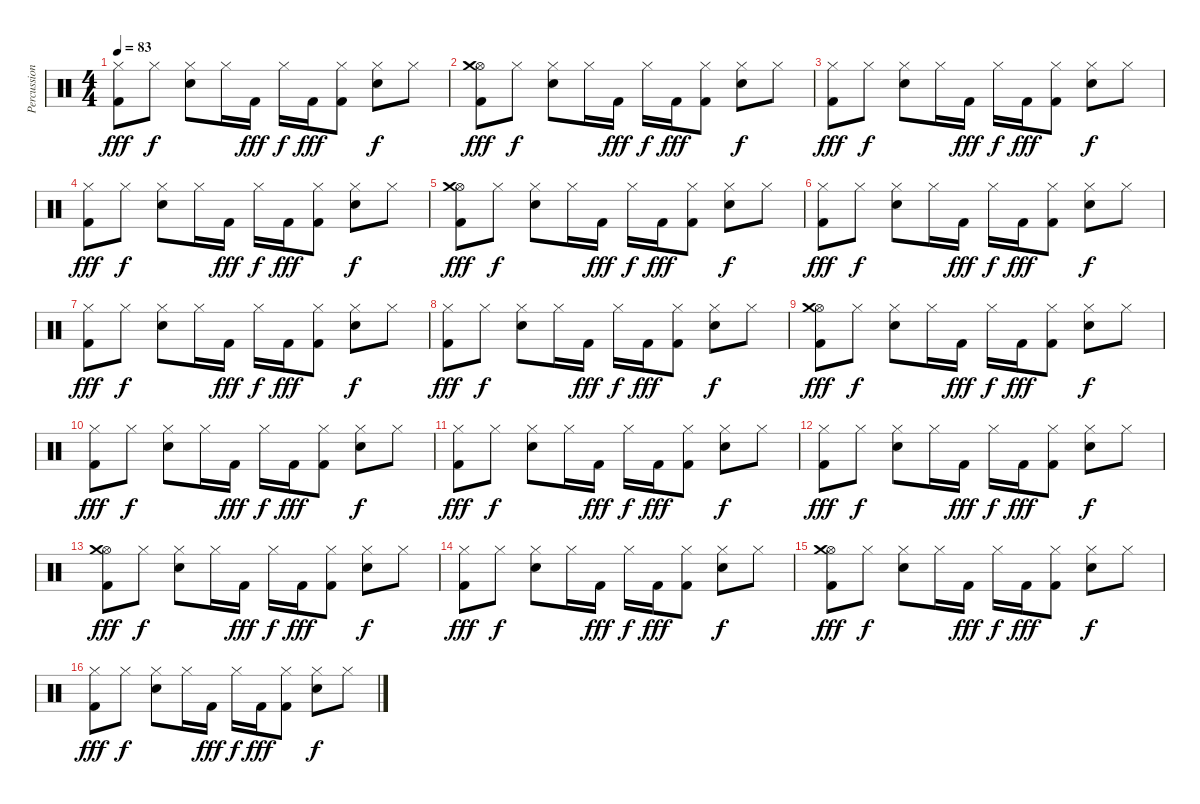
\track ("Percussion" "Percussion") {instrument percussion}
\staff {score}
\articulation defaults
\ts (4 4)
\tempo 83
\clef neutral
\ks c
("Kick (hit) 2" "Hi-Hat (closed)").8{dy fff} "Hi-Hat (closed)".8{dy f} ("Electric Snare (hit)" "Hi-Hat (closed)").8 "Hi-Hat (closed)".16 "Kick (hit) 2".16{dy fff} "Hi-Hat (closed)".16{dy f} "Kick (hit) 2".16{dy fff} ("Kick (hit) 2" "Hi-Hat (closed)").8 ("Electric Snare (hit)" "Hi-Hat (closed)").8{dy f} "Hi-Hat (closed)".8 |
("Kick (hit) 2" "Hi-Hat (open)" "Crash medium (hit)").8{dy fff} "Hi-Hat (closed)".8{dy f} ("Electric Snare (hit)" "Hi-Hat (closed)").8 "Hi-Hat (closed)".16 "Kick (hit) 2".16{dy fff} "Hi-Hat (closed)".16{dy f} "Kick (hit) 2".16{dy fff} ("Kick (hit) 2" "Hi-Hat (closed)").8 ("Electric Snare (hit)" "Hi-Hat (closed)").8{dy f} "Hi-Hat (closed)".8 |
("Kick (hit) 2" "Hi-Hat (closed)").8{dy fff} "Hi-Hat (closed)".8{dy f} ("Electric Snare (hit)" "Hi-Hat (closed)").8 "Hi-Hat (closed)".16 "Kick (hit) 2".16{dy fff} "Hi-Hat (closed)".16{dy f} "Kick (hit) 2".16{dy fff} ("Kick (hit) 2" "Hi-Hat (closed)").8 ("Electric Snare (hit)" "Hi-Hat (closed)").8{dy f} "Hi-Hat (closed)".8 |
("Kick (hit) 2" "Hi-Hat (closed)").8{dy fff} "Hi-Hat (closed)".8{dy f} ("Electric Snare (hit)" "Hi-Hat (closed)").8 "Hi-Hat (closed)".16 "Kick (hit) 2".16{dy fff} "Hi-Hat (closed)".16{dy f} "Kick (hit) 2".16{dy fff} ("Kick (hit) 2" "Hi-Hat (closed)").8 ("Electric Snare (hit)" "Hi-Hat (closed)").8{dy f} "Hi-Hat (closed)".8 |
("Kick (hit) 2" "Hi-Hat (open)" "Crash medium (hit)").8{dy fff} "Hi-Hat (closed)".8{dy f} ("Electric Snare (hit)" "Hi-Hat (closed)").8 "Hi-Hat (closed)".16 "Kick (hit) 2".16{dy fff} "Hi-Hat (closed)".16{dy f} "Kick (hit) 2".16{dy fff} ("Kick (hit) 2" "Hi-Hat (closed)").8 ("Electric Snare (hit)" "Hi-Hat (closed)").8{dy f} "Hi-Hat (closed)".8 |
("Kick (hit) 2" "Hi-Hat (closed)").8{dy fff} "Hi-Hat (closed)".8{dy f} ("Electric Snare (hit)" "Hi-Hat (closed)").8 "Hi-Hat (closed)".16 "Kick (hit) 2".16{dy fff} "Hi-Hat (closed)".16{dy f} "Kick (hit) 2".16{dy fff} ("Kick (hit) 2" "Hi-Hat (closed)").8 ("Electric Snare (hit)" "Hi-Hat (closed)").8{dy f} "Hi-Hat (closed)".8 |
("Kick (hit) 2" "Hi-Hat (closed)").8{dy fff} "Hi-Hat (closed)".8{dy f} ("Electric Snare (hit)" "Hi-Hat (closed)").8 "Hi-Hat (closed)".16 "Kick (hit) 2".16{dy fff} "Hi-Hat (closed)".16{dy f} "Kick (hit) 2".16{dy fff} ("Kick (hit) 2" "Hi-Hat (closed)").8 ("Electric Snare (hit)" "Hi-Hat (closed)").8{dy f} "Hi-Hat (closed)".8 |
("Kick (hit) 2" "Hi-Hat (closed)").8{dy fff} "Hi-Hat (closed)".8{dy f} ("Electric Snare (hit)" "Hi-Hat (closed)").8 "Hi-Hat (closed)".16 "Kick (hit) 2".16{dy fff} "Hi-Hat (closed)".16{dy f} "Kick (hit) 2".16{dy fff} ("Kick (hit) 2" "Hi-Hat (closed)").8 ("Electric Snare (hit)" "Hi-Hat (closed)").8{dy f} "Hi-Hat (closed)".8 |
("Kick (hit) 2" "Hi-Hat (open)" "Crash medium (hit)").8{dy fff} "Hi-Hat (closed)".8{dy f} ("Electric Snare (hit)" "Hi-Hat (closed)").8 "Hi-Hat (closed)".16 "Kick (hit) 2".16{dy fff} "Hi-Hat (closed)".16{dy f} "Kick (hit) 2".16{dy fff} ("Kick (hit) 2" "Hi-Hat (closed)").8 ("Electric Snare (hit)" "Hi-Hat (closed)").8{dy f} "Hi-Hat (closed)".8 |
("Kick (hit) 2" "Hi-Hat (closed)").8{dy fff} "Hi-Hat (closed)".8{dy f} ("Electric Snare (hit)" "Hi-Hat (closed)").8 "Hi-Hat (closed)".16 "Kick (hit) 2".16{dy fff} "Hi-Hat (closed)".16{dy f} "Kick (hit) 2".16{dy fff} ("Kick (hit) 2" "Hi-Hat (closed)").8 ("Electric Snare (hit)" "Hi-Hat (closed)").8{dy f} "Hi-Hat (closed)".8 |
("Kick (hit) 2" "Hi-Hat (closed)").8{dy fff} "Hi-Hat (closed)".8{dy f} ("Electric Snare (hit)" "Hi-Hat (closed)").8 "Hi-Hat (closed)".16 "Kick (hit) 2".16{dy fff} "Hi-Hat (closed)".16{dy f} "Kick (hit) 2".16{dy fff} ("Kick (hit) 2" "Hi-Hat (closed)").8 ("Electric Snare (hit)" "Hi-Hat (closed)").8{dy f} "Hi-Hat (closed)".8 |
("Kick (hit) 2" "Hi-Hat (closed)").8{dy fff} "Hi-Hat (closed)".8{dy f} ("Electric Snare (hit)" "Hi-Hat (closed)").8 "Hi-Hat (closed)".16 "Kick (hit) 2".16{dy fff} "Hi-Hat (closed)".16{dy f} "Kick (hit) 2".16{dy fff} ("Kick (hit) 2" "Hi-Hat (closed)").8 ("Electric Snare (hit)" "Hi-Hat (closed)").8{dy f} "Hi-Hat (closed)".8 |
("Kick (hit) 2" "Hi-Hat (open)" "Crash medium (hit)").8{dy fff} "Hi-Hat (closed)".8{dy f} ("Electric Snare (hit)" "Hi-Hat (closed)").8 "Hi-Hat (closed)".16 "Kick (hit) 2".16{dy fff} "Hi-Hat (closed)".16{dy f} "Kick (hit) 2".16{dy fff} ("Kick (hit) 2" "Hi-Hat (closed)").8 ("Electric Snare (hit)" "Hi-Hat (closed)").8{dy f} "Hi-Hat (closed)".8 |
("Kick (hit) 2" "Hi-Hat (closed)").8{dy fff} "Hi-Hat (closed)".8{dy f} ("Electric Snare (hit)" "Hi-Hat (closed)").8 "Hi-Hat (closed)".16 "Kick (hit) 2".16{dy fff} "Hi-Hat (closed)".16{dy f} "Kick (hit) 2".16{dy fff} ("Kick (hit) 2" "Hi-Hat (closed)").8 ("Electric Snare (hit)" "Hi-Hat (closed)").8{dy f} "Hi-Hat (closed)".8 |
("Kick (hit) 2" "Hi-Hat (open)" "Crash medium (hit)").8{dy fff} "Hi-Hat (closed)".8{dy f} ("Electric Snare (hit)" "Hi-Hat (closed)").8 "Hi-Hat (closed)".16 "Kick (hit) 2".16{dy fff} "Hi-Hat (closed)".16{dy f} "Kick (hit) 2".16{dy fff} ("Kick (hit) 2" "Hi-Hat (closed)").8 ("Electric Snare (hit)" "Hi-Hat (closed)").8{dy f} "Hi-Hat (closed)".8 |
("Kick (hit) 2" "Hi-Hat (closed)").8{dy fff} "Hi-Hat (closed)".8{dy f} ("Electric Snare (hit)" "Hi-Hat (closed)").8 "Hi-Hat (closed)".16 "Kick (hit) 2".16{dy fff} "Hi-Hat (closed)".16{dy f} "Kick (hit) 2".16{dy fff} ("Kick (hit) 2" "Hi-Hat (closed)").8 ("Electric Snare (hit)" "Hi-Hat (closed)").8{dy f} "Hi-Hat (closed)".8
